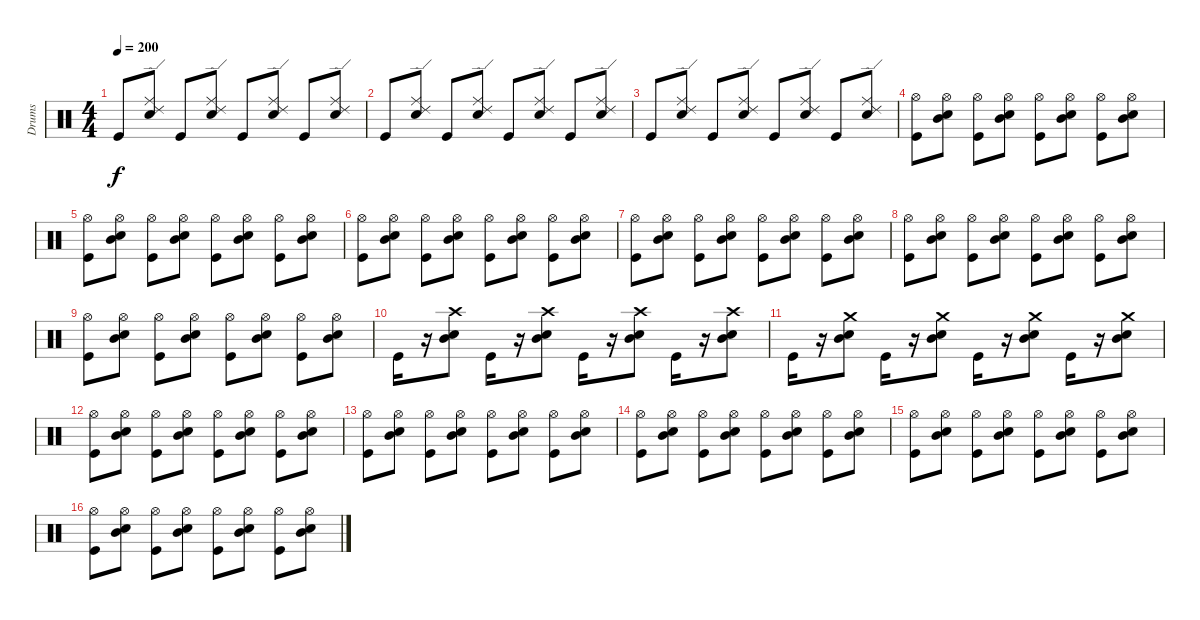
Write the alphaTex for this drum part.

\track ("Drums" "Drums") {instrument percussion}
\staff {score}
\articulation defaults
\ts (4 4)
\tempo 200
\clef neutral
\ks c "Kick (hit)".8{dy f}
("Electric Snare (hit)" "Ride (middle)" "Ride (edge) 2").8 "Kick (hit)".8 ("Electric Snare (hit)" "Ride (edge) 2" "Ride (middle)").8 "Kick (hit)".8 ("Electric Snare (hit)" "Ride (edge) 2" "Ride (middle)").8 "Kick (hit)".8 ("Electric Snare (hit)" "Ride (edge) 2" "Ride (middle)").8 |
"Kick (hit)".8 ("Electric Snare (hit)" "Ride (middle)" "Ride (edge) 2").8 "Kick (hit)".8 ("Electric Snare (hit)" "Ride (edge) 2" "Ride (middle)").8 "Kick (hit)".8 ("Electric Snare (hit)" "Ride (edge) 2" "Ride (middle)").8 "Kick (hit)".8 ("Electric Snare (hit)" "Ride (edge) 2" "Ride (middle)").8 |
"Kick (hit)".8 ("Electric Snare (hit)" "Ride (middle)" "Ride (edge) 2").8 "Kick (hit)".8 ("Electric Snare (hit)" "Ride (edge) 2" "Ride (middle)").8 "Kick (hit)".8 ("Electric Snare (hit)" "Ride (edge) 2" "Ride (middle)").8 "Kick (hit)".8 ("Electric Snare (hit)" "Ride (edge) 2" "Ride (middle)").8 |
("Kick (hit)" "Hi-Hat (open)").8 ("Mid Tom (hit)" "Electric Snare (hit)" "Hi-Hat (open)").8 ("Hi-Hat (open)" "Kick (hit)").8 ("Mid Tom (hit)" "Hi-Hat (open)" "Electric Snare (hit)").8 ("Hi-Hat (open)" "Kick (hit)").8 ("Mid Tom (hit)" "Hi-Hat (open)" "Electric Snare (hit)").8 ("Kick (hit)" "Hi-Hat (open)").8 ("Mid Tom (hit)" "Hi-Hat (open)" "Electric Snare (hit)").8 |
("Kick (hit)" "Hi-Hat (open)").8 ("Electric Snare (hit)" "Hi-Hat (open)" "Mid Tom (hit)").8 ("Kick (hit)" "Hi-Hat (open)").8 ("Hi-Hat (open)" "Mid Tom (hit)" "Electric Snare (hit)").8 ("Hi-Hat (open)" "Kick (hit)").8 ("Electric Snare (hit)" "Mid Tom (hit)" "Hi-Hat (open)").8 ("Kick (hit)" "Hi-Hat (open)").8 ("Hi-Hat (open)" "Electric Snare (hit)" "Mid Tom (hit)").8 |
("Kick (hit)" "Hi-Hat (open)").8 ("Electric Snare (hit)" "Hi-Hat (open)" "Mid Tom (hit)").8 ("Hi-Hat (open)" "Kick (hit)").8 ("Electric Snare (hit)" "Hi-Hat (open)" "Mid Tom (hit)").8 ("Kick (hit)" "Hi-Hat (open)").8 ("Hi-Hat (open)" "Electric Snare (hit)" "Mid Tom (hit)").8 ("Hi-Hat (open)" "Kick (hit)").8 ("Electric Snare (hit)" "Hi-Hat (open)" "Mid Tom (hit)").8 |
("Hi-Hat (open)" "Kick (hit)").8 ("Hi-Hat (open)" "Electric Snare (hit)" "Mid Tom (hit)").8 ("Kick (hit)" "Hi-Hat (open)").8 ("Electric Snare (hit)" "Hi-Hat (open)" "Mid Tom (hit)").8 ("Kick (hit)" "Hi-Hat (open)").8 ("Hi-Hat (open)" "Electric Snare (hit)" "Mid Tom (hit)").8 ("Kick (hit)" "Hi-Hat (open)").8 ("Electric Snare (hit)" "Hi-Hat (open)" "Mid Tom (hit)").8 |
("Hi-Hat (open)" "Kick (hit)").8 ("Hi-Hat (open)" "Electric Snare (hit)" "Mid Tom (hit)").8 ("Kick (hit)" "Hi-Hat (open)").8 ("Hi-Hat (open)" "Electric Snare (hit)" "Mid Tom (hit)").8 ("Hi-Hat (open)" "Kick (hit)").8 ("Mid Tom (hit)" "Hi-Hat (open)" "Electric Snare (hit)").8 ("Hi-Hat (open)" "Kick (hit)").8 ("Mid Tom (hit)" "Hi-Hat (open)" "Electric Snare (hit)").8 |
("Hi-Hat (open)" "Kick (hit)").8 ("Hi-Hat (open)" "Electric Snare (hit)" "Mid Tom (hit)").8 ("Hi-Hat (open)" "Kick (hit)").8 ("Hi-Hat (open)" "Electric Snare (hit)" "Mid Tom (hit)").8 ("Kick (hit)" "Hi-Hat (open)").8 ("Electric Snare (hit)" "Hi-Hat (open)" "Mid Tom (hit)").8 ("Hi-Hat (open)" "Kick (hit)").8 ("Electric Snare (hit)" "Hi-Hat (open)" "Mid Tom (hit)").8 |
"Kick (hit)".16 r.16 ("Electric Snare (hit)" "Crash high (hit)" "Mid Tom (hit)").8 "Kick (hit)".16 r.16 ("Crash high (hit)" "Electric Snare (hit)" "Mid Tom (hit)").8 "Kick (hit)".16 r.16 ("Crash high (hit)" "Electric Snare (hit)" "Mid Tom (hit)").8 "Kick (hit)".16 r.16 ("Mid Tom (hit)" "Electric Snare (hit)" "Crash high (hit)").8 |
"Kick (hit)".16 r.16 ("Crash medium (hit)" "Electric Snare (hit)" "Mid Tom (hit)").8 "Kick (hit)".16 r.16 ("Crash medium (hit)" "Mid Tom (hit)" "Electric Snare (hit)").8 "Kick (hit)".16 r.16 ("Crash medium (hit)" "Electric Snare (hit)" "Mid Tom (hit)").8 "Kick (hit)".16 r.16 ("Mid Tom (hit)" "Crash medium (hit)" "Electric Snare (hit)").8 |
("Kick (hit)" "Hi-Hat (open)").8 ("Hi-Hat (open)" "Electric Snare (hit)" "Mid Tom (hit)").8 ("Kick (hit)" "Hi-Hat (open)").8 ("Hi-Hat (open)" "Mid Tom (hit)" "Electric Snare (hit)").8 ("Hi-Hat (open)" "Kick (hit)").8 ("Hi-Hat (open)" "Electric Snare (hit)" "Mid Tom (hit)").8 ("Hi-Hat (open)" "Kick (hit)").8 ("Mid Tom (hit)" "Hi-Hat (open)" "Electric Snare (hit)").8 |
("Kick (hit)" "Hi-Hat (open)").8 ("Hi-Hat (open)" "Electric Snare (hit)" "Mid Tom (hit)").8 ("Kick (hit)" "Hi-Hat (open)").8 ("Hi-Hat (open)" "Mid Tom (hit)" "Electric Snare (hit)").8 ("Hi-Hat (open)" "Kick (hit)").8 ("Electric Snare (hit)" "Hi-Hat (open)" "Mid Tom (hit)").8 ("Hi-Hat (open)" "Kick (hit)").8 ("Mid Tom (hit)" "Electric Snare (hit)" "Hi-Hat (open)").8 |
("Kick (hit)" "Hi-Hat (open)").8 ("Hi-Hat (open)" "Electric Snare (hit)" "Mid Tom (hit)").8 ("Hi-Hat (open)" "Kick (hit)").8 ("Hi-Hat (open)" "Mid Tom (hit)" "Electric Snare (hit)").8 ("Kick (hit)" "Hi-Hat (open)").8 ("Hi-Hat (open)" "Electric Snare (hit)" "Mid Tom (hit)").8 ("Kick (hit)" "Hi-Hat (open)").8 ("Mid Tom (hit)" "Hi-Hat (open)" "Electric Snare (hit)").8 |
("Hi-Hat (open)" "Kick (hit)").8 ("Hi-Hat (open)" "Electric Snare (hit)" "Mid Tom (hit)").8 ("Hi-Hat (open)" "Kick (hit)").8 ("Hi-Hat (open)" "Mid Tom (hit)" "Electric Snare (hit)").8 ("Kick (hit)" "Hi-Hat (open)").8 ("Electric Snare (hit)" "Hi-Hat (open)" "Mid Tom (hit)").8 ("Kick (hit)" "Hi-Hat (open)").8 ("Mid Tom (hit)" "Hi-Hat (open)" "Electric Snare (hit)").8 |
("Kick (hit)" "Hi-Hat (open)").8 ("Hi-Hat (open)" "Electric Snare (hit)" "Mid Tom (hit)").8 ("Kick (hit)" "Hi-Hat (open)").8 ("Hi-Hat (open)" "Mid Tom (hit)" "Electric Snare (hit)").8 ("Hi-Hat (open)" "Kick (hit)").8 ("Hi-Hat (open)" "Mid Tom (hit)" "Electric Snare (hit)").8 ("Kick (hit)" "Hi-Hat (open)").8 ("Hi-Hat (open)" "Electric Snare (hit)" "Mid Tom (hit)").8
